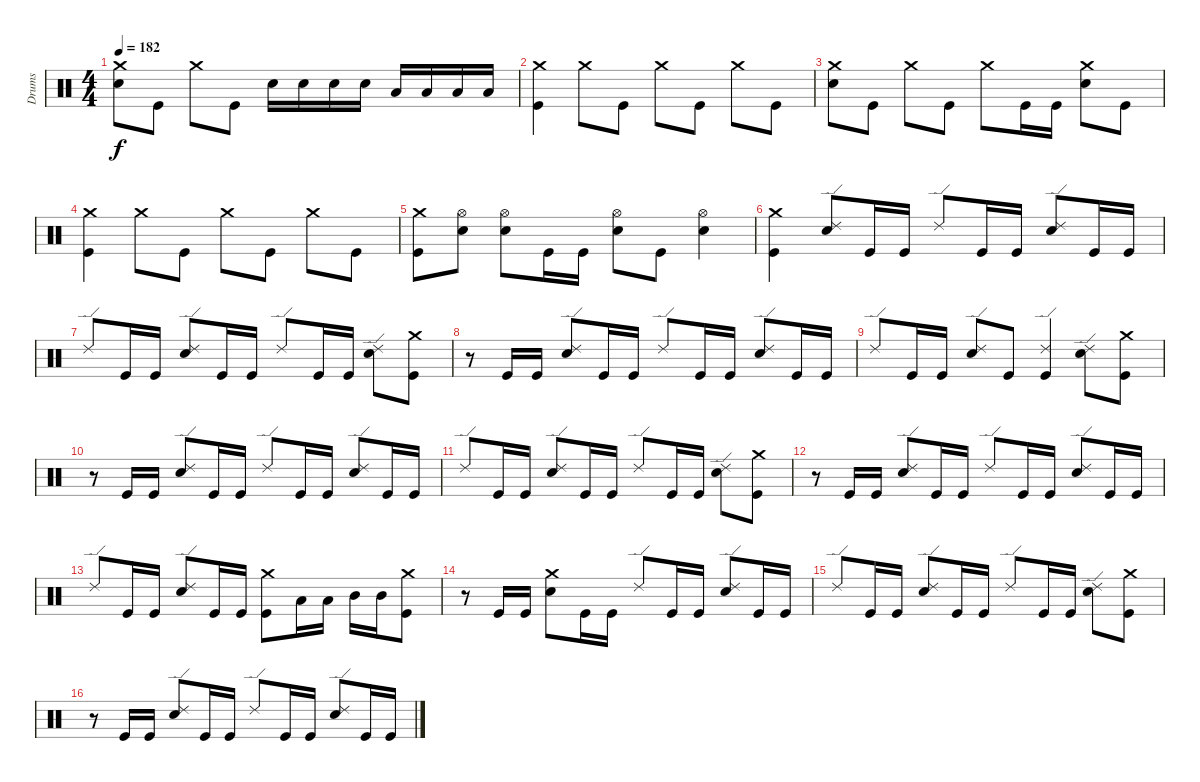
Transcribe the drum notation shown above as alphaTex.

\track ("Drums" "Drums") {instrument percussion}
\staff {score}
\articulation defaults
\ts (4 4)
\tempo 182
\clef neutral
\ks c
("Crash medium (hit)" "Electric Snare (hit)").8{dy f} "Kick (hit)".8 "Crash medium (hit)".8 "Kick (hit)".8 "Electric Snare (hit)".16 "Electric Snare (hit)".16 "Electric Snare (hit)".16 "Electric Snare (hit)".16 "Low Tom (hit)".16 "Low Tom (hit)".16 "Low Tom (hit)".16 "Low Tom (hit)".16 |
("Crash medium (hit)" "Kick (hit)").4 "Crash medium (hit)".8 "Kick (hit)".8 "Crash medium (hit)".8 "Kick (hit)".8 "Crash medium (hit)".8 "Kick (hit)".8 |
("Crash medium (hit)" "Electric Snare (hit)").8 "Kick (hit)".8 "Crash medium (hit)".8 "Kick (hit)".8 "Crash medium (hit)".8 "Kick (hit)".16 "Kick (hit)".16 ("Crash medium (hit)" "Electric Snare (hit)").8 "Kick (hit)".8 |
("Crash medium (hit)" "Kick (hit)").4 "Crash medium (hit)".8 "Kick (hit)".8 "Crash medium (hit)".8 "Kick (hit)".8 "Crash medium (hit)".8 "Kick (hit)".8 |
("Crash medium (hit)" "Kick (hit)").8 ("Hi-Hat (open)" "Electric Snare (hit)").8 ("Hi-Hat (open)" "Electric Snare (hit)").8 "Kick (hit)".16 "Kick (hit)".16 ("Hi-Hat (open)" "Electric Snare (hit)").8 "Kick (hit)".8 ("Hi-Hat (open)" "Electric Snare (hit)").4 |
("Crash medium (hit)" "Kick (hit)").4 ("Ride (edge) 2" "Electric Snare (hit)").8 "Kick (hit)".16 "Kick (hit)".16 "Ride (edge) 2".8 "Kick (hit)".16 "Kick (hit)".16 ("Ride (edge) 2" "Electric Snare (hit)").8 "Kick (hit)".16 "Kick (hit)".16 |
"Ride (edge) 2".8 "Kick (hit)".16 "Kick (hit)".16 ("Ride (edge) 2" "Electric Snare (hit)").8 "Kick (hit)".16 "Kick (hit)".16 "Ride (edge) 2".8 "Kick (hit)".16 "Kick (hit)".16 ("Ride (edge) 2" "Electric Snare (hit)").8 ("Crash medium (hit)" "Kick (hit)").8 |
r.8 "Kick (hit)".16 "Kick (hit)".16 ("Ride (edge) 2" "Electric Snare (hit)").8 "Kick (hit)".16 "Kick (hit)".16 "Ride (edge) 2".8 "Kick (hit)".16 "Kick (hit)".16 ("Ride (edge) 2" "Electric Snare (hit)").8 "Kick (hit)".16 "Kick (hit)".16 |
"Ride (edge) 2".8 "Kick (hit)".16 "Kick (hit)".16 ("Ride (edge) 2" "Electric Snare (hit)").8 "Kick (hit)".8 ("Ride (edge) 2" "Kick (hit)").4 ("Ride (edge) 2" "Electric Snare (hit)").8 ("Crash medium (hit)" "Kick (hit)").8 |
r.8 "Kick (hit)".16 "Kick (hit)".16 ("Ride (edge) 2" "Electric Snare (hit)").8 "Kick (hit)".16 "Kick (hit)".16 "Ride (edge) 2".8 "Kick (hit)".16 "Kick (hit)".16 ("Ride (edge) 2" "Electric Snare (hit)").8 "Kick (hit)".16 "Kick (hit)".16 |
"Ride (edge) 2".8 "Kick (hit)".16 "Kick (hit)".16 ("Ride (edge) 2" "Electric Snare (hit)").8 "Kick (hit)".16 "Kick (hit)".16 "Ride (edge) 2".8 "Kick (hit)".16 "Kick (hit)".16 ("Ride (edge) 2" "Electric Snare (hit)").8 ("Crash medium (hit)" "Kick (hit)").8 |
r.8 "Kick (hit)".16 "Kick (hit)".16 ("Ride (edge) 2" "Electric Snare (hit)").8 "Kick (hit)".16 "Kick (hit)".16 "Ride (edge) 2".8 "Kick (hit)".16 "Kick (hit)".16 ("Ride (edge) 2" "Electric Snare (hit)").8 "Kick (hit)".16 "Kick (hit)".16 |
"Ride (edge) 2".8 "Kick (hit)".16 "Kick (hit)".16 ("Ride (edge) 2" "Electric Snare (hit)").8 "Kick (hit)".16 "Kick (hit)".16 ("Crash medium (hit)" "Kick (hit)").8 "Low Tom (hit)".16 "Low Tom (hit)".16 "Mid Tom (hit)".16 "Mid Tom (hit)".16 ("Crash medium (hit)" "Kick (hit)").8 |
r.8 "Kick (hit)".16 "Kick (hit)".16 ("Crash medium (hit)" "Electric Snare (hit)").8 "Kick (hit)".16 "Kick (hit)".16 "Ride (edge) 2".8 "Kick (hit)".16 "Kick (hit)".16 ("Ride (edge) 2" "Electric Snare (hit)").8 "Kick (hit)".16 "Kick (hit)".16 |
"Ride (edge) 2".8 "Kick (hit)".16 "Kick (hit)".16 ("Ride (edge) 2" "Electric Snare (hit)").8 "Kick (hit)".16 "Kick (hit)".16 "Ride (edge) 2".8 "Kick (hit)".16 "Kick (hit)".16 ("Ride (edge) 2" "Electric Snare (hit)").8 ("Crash medium (hit)" "Kick (hit)").8 |
r.8 "Kick (hit)".16 "Kick (hit)".16 ("Ride (edge) 2" "Electric Snare (hit)").8 "Kick (hit)".16 "Kick (hit)".16 "Ride (edge) 2".8 "Kick (hit)".16 "Kick (hit)".16 ("Ride (edge) 2" "Electric Snare (hit)").8 "Kick (hit)".16 "Kick (hit)".16
